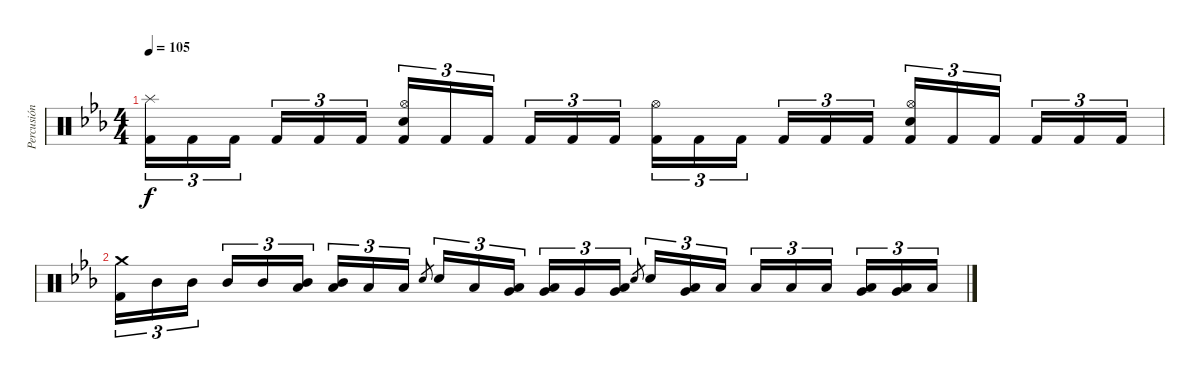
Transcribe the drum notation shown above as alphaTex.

\track ("Percusión" "Percusión") {instrument percussion}
\staff {score}
\articulation defaults
\ts (4 4)
\tempo 105
\clef neutral
\ks cminor
("Splash (hit)" "Kick (hit) 2").16{tu (3 2) dy f} "Kick (hit) 2".16{tu (3 2)} "Kick (hit) 2".16{tu (3 2) beam splitsecondary} "Kick (hit) 2".16{tu (3 2)} "Kick (hit) 2".16{tu (3 2)} "Kick (hit) 2".16{tu (3 2)} ("Hi-Hat (open)" "Snare (hit) 2" "Kick (hit) 2").16{tu (3 2)} "Kick (hit) 2".16{tu (3 2)} "Kick (hit) 2".16{tu (3 2) beam splitsecondary} "Kick (hit) 2".16{tu (3 2)} "Kick (hit) 2".16{tu (3 2)} "Kick (hit) 2".16{tu (3 2)} ("Hi-Hat (open)" "Kick (hit) 2").16{tu (3 2)} "Kick (hit) 2".16{tu (3 2)} "Kick (hit) 2".16{tu (3 2) beam splitsecondary} "Kick (hit) 2".16{tu (3 2)} "Kick (hit) 2".16{tu (3 2)} "Kick (hit) 2".16{tu (3 2)} ("Hi-Hat (open)" "Snare (hit) 2" "Kick (hit) 2").16{tu (3 2)} "Kick (hit) 2".16{tu (3 2)} "Kick (hit) 2".16{tu (3 2) beam splitsecondary} "Kick (hit) 2".16{tu (3 2)} "Kick (hit) 2".16{tu (3 2)} "Kick (hit) 2".16{tu (3 2)} |
("Crash medium (hit)" "Kick (hit) 2").16{tu (3 2)} "Mid Tom (hit)".16{tu (3 2)} "Mid Tom (hit)".16{tu (3 2) beam splitsecondary} "Mid Tom (hit)".16{tu (3 2)} "Mid Tom (hit)".16{tu (3 2)} ("Low Tom (hit)" "Mid Tom (hit)").16{tu (3 2)} ("Low Tom (hit)" "Mid Tom (hit)").16{tu (3 2)} "Low Tom (hit)".16{tu (3 2)} "Low Tom (hit)".16{tu (3 2)} "Snare (hit) 2".8{gr beam splitsecondary} "Snare (hit) 2".16{tu (3 2)} "Low Tom (hit)".16{tu (3 2)} ("Low Tom (hit)" "Very Low Tom (hit)").16{tu (3 2)} ("Low Tom (hit)" "Very Low Tom (hit)").16{tu (3 2)} "Very Low Tom (hit)".16{tu (3 2)} ("Very Low Tom (hit)" "Low Floor Tom (hit)").16{tu (3 2)} "Snare (hit) 2".8{gr beam splitsecondary} "Snare (hit) 2".16{tu (3 2)} ("Very Low Tom (hit)" "Low Floor Tom (hit)").16{tu (3 2)} "Low Floor Tom (hit)".16{tu (3 2)} "Low Floor Tom (hit)".16{tu (3 2)} "Low Floor Tom (hit)".16{tu (3 2)} "Low Floor Tom (hit)".16{tu (3 2) beam splitsecondary} ("Very Low Tom (hit)" "Low Floor Tom (hit)").16{tu (3 2)} ("Very Low Tom (hit)" "Low Floor Tom (hit)").16{tu (3 2)} "Low Floor Tom (hit)".16{tu (3 2)}
